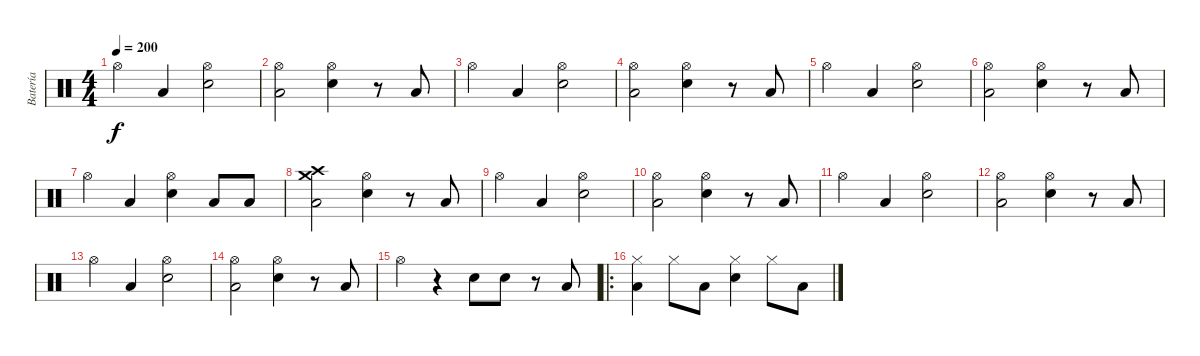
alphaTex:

\track ("Batería" "Batería") {instrument percussion}
\staff {score}
\articulation defaults
\ts (4 4)
\tempo 200
\clef neutral
\ks c "Hi-Hat (open)".4{dy f} "Low Floor Tom (hit)".4
("Hi-Hat (open)" "Electric Snare (hit)").2 |
("Hi-Hat (open)" "Low Floor Tom (hit)").2 ("Hi-Hat (open)" "Electric Snare (hit)").4 r.8 "Low Floor Tom (hit)".8 |
"Hi-Hat (open)".4 "Low Floor Tom (hit)".4 ("Hi-Hat (open)" "Electric Snare (hit)").2 |
("Hi-Hat (open)" "Low Floor Tom (hit)").2 ("Hi-Hat (open)" "Electric Snare (hit)").4 r.8 "Low Floor Tom (hit)".8 |
"Hi-Hat (open)".4 "Low Floor Tom (hit)".4 ("Hi-Hat (open)" "Electric Snare (hit)").2 |
("Hi-Hat (open)" "Low Floor Tom (hit)").2 ("Hi-Hat (open)" "Electric Snare (hit)").4 r.8 "Low Floor Tom (hit)".8 |
"Hi-Hat (open)".4 "Low Floor Tom (hit)".4 ("Hi-Hat (open)" "Electric Snare (hit)").4 "Low Tom (hit)".8 "Low Tom (hit)".8 |
("Crash high (hit)" "Crash medium (hit)" "Low Floor Tom (hit)").2 ("Hi-Hat (open)" "Electric Snare (hit)").4 r.8 "Low Floor Tom (hit)".8 |
"Hi-Hat (open)".4 "Low Floor Tom (hit)".4 ("Hi-Hat (open)" "Electric Snare (hit)").2 |
("Hi-Hat (open)" "Low Floor Tom (hit)").2 ("Hi-Hat (open)" "Electric Snare (hit)").4 r.8 "Low Floor Tom (hit)".8 |
"Hi-Hat (open)".4 "Low Floor Tom (hit)".4 ("Hi-Hat (open)" "Electric Snare (hit)").2 |
("Hi-Hat (open)" "Low Floor Tom (hit)").2 ("Hi-Hat (open)" "Electric Snare (hit)").4 r.8 "Low Floor Tom (hit)".8 |
"Hi-Hat (open)".4 "Low Floor Tom (hit)".4 ("Hi-Hat (open)" "Electric Snare (hit)").2 |
("Hi-Hat (open)" "Low Floor Tom (hit)").2 ("Hi-Hat (open)" "Electric Snare (hit)").4 r.8 "Low Floor Tom (hit)".8 |
"Hi-Hat (open)".4 r.4 "Electric Snare (hit)".8 "Electric Snare (hit)".8 r.8 "Low Tom (hit)".8 |
\ro
("Hi-Hat (closed)" "Low Floor Tom (hit)").4 "Hi-Hat (closed)".8 "Low Floor Tom (hit)".8 ("Hi-Hat (closed)" "Electric Snare (hit)").4 "Hi-Hat (closed)".8 "Low Floor Tom (hit)".8
